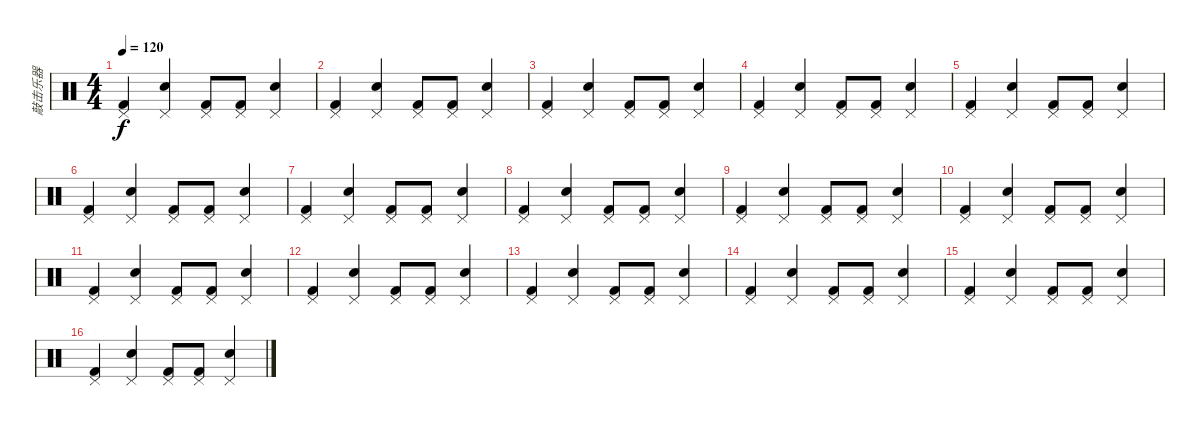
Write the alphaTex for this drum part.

\track ("敲击乐器" "敲击乐器") {instrument percussion}
\staff {score}
\articulation defaults
\ts (4 4)
\tempo 120
\clef neutral
\ks c
("Kick (hit) 2" "Pedal Hi-Hat (hit)").4{dy f} ("Snare (hit) 2" "Pedal Hi-Hat (hit)").4 ("Kick (hit) 2" "Pedal Hi-Hat (hit)").8 ("Kick (hit) 2" "Pedal Hi-Hat (hit)").8 ("Snare (hit) 2" "Pedal Hi-Hat (hit)").4 |
("Kick (hit) 2" "Pedal Hi-Hat (hit)").4 ("Snare (hit) 2" "Pedal Hi-Hat (hit)").4 ("Kick (hit) 2" "Pedal Hi-Hat (hit)").8 ("Kick (hit) 2" "Pedal Hi-Hat (hit)").8 ("Snare (hit) 2" "Pedal Hi-Hat (hit)").4 |
("Kick (hit) 2" "Pedal Hi-Hat (hit)").4 ("Snare (hit) 2" "Pedal Hi-Hat (hit)").4 ("Kick (hit) 2" "Pedal Hi-Hat (hit)").8 ("Kick (hit) 2" "Pedal Hi-Hat (hit)").8 ("Snare (hit) 2" "Pedal Hi-Hat (hit)").4 |
("Kick (hit) 2" "Pedal Hi-Hat (hit)").4 ("Snare (hit) 2" "Pedal Hi-Hat (hit)").4 ("Kick (hit) 2" "Pedal Hi-Hat (hit)").8 ("Kick (hit) 2" "Pedal Hi-Hat (hit)").8 ("Snare (hit) 2" "Pedal Hi-Hat (hit)").4 |
("Kick (hit) 2" "Pedal Hi-Hat (hit)").4 ("Snare (hit) 2" "Pedal Hi-Hat (hit)").4 ("Kick (hit) 2" "Pedal Hi-Hat (hit)").8 ("Kick (hit) 2" "Pedal Hi-Hat (hit)").8 ("Snare (hit) 2" "Pedal Hi-Hat (hit)").4 |
("Kick (hit) 2" "Pedal Hi-Hat (hit)").4 ("Snare (hit) 2" "Pedal Hi-Hat (hit)").4 ("Kick (hit) 2" "Pedal Hi-Hat (hit)").8 ("Kick (hit) 2" "Pedal Hi-Hat (hit)").8 ("Snare (hit) 2" "Pedal Hi-Hat (hit)").4 |
("Kick (hit) 2" "Pedal Hi-Hat (hit)").4 ("Snare (hit) 2" "Pedal Hi-Hat (hit)").4 ("Kick (hit) 2" "Pedal Hi-Hat (hit)").8 ("Kick (hit) 2" "Pedal Hi-Hat (hit)").8 ("Snare (hit) 2" "Pedal Hi-Hat (hit)").4 |
("Kick (hit) 2" "Pedal Hi-Hat (hit)").4 ("Snare (hit) 2" "Pedal Hi-Hat (hit)").4 ("Kick (hit) 2" "Pedal Hi-Hat (hit)").8 ("Kick (hit) 2" "Pedal Hi-Hat (hit)").8 ("Snare (hit) 2" "Pedal Hi-Hat (hit)").4 |
("Kick (hit) 2" "Pedal Hi-Hat (hit)").4 ("Snare (hit) 2" "Pedal Hi-Hat (hit)").4 ("Kick (hit) 2" "Pedal Hi-Hat (hit)").8 ("Kick (hit) 2" "Pedal Hi-Hat (hit)").8 ("Snare (hit) 2" "Pedal Hi-Hat (hit)").4 |
("Kick (hit) 2" "Pedal Hi-Hat (hit)").4 ("Snare (hit) 2" "Pedal Hi-Hat (hit)").4 ("Kick (hit) 2" "Pedal Hi-Hat (hit)").8 ("Kick (hit) 2" "Pedal Hi-Hat (hit)").8 ("Snare (hit) 2" "Pedal Hi-Hat (hit)").4 |
("Kick (hit) 2" "Pedal Hi-Hat (hit)").4 ("Snare (hit) 2" "Pedal Hi-Hat (hit)").4 ("Kick (hit) 2" "Pedal Hi-Hat (hit)").8 ("Kick (hit) 2" "Pedal Hi-Hat (hit)").8 ("Snare (hit) 2" "Pedal Hi-Hat (hit)").4 |
("Kick (hit) 2" "Pedal Hi-Hat (hit)").4 ("Snare (hit) 2" "Pedal Hi-Hat (hit)").4 ("Kick (hit) 2" "Pedal Hi-Hat (hit)").8 ("Kick (hit) 2" "Pedal Hi-Hat (hit)").8 ("Snare (hit) 2" "Pedal Hi-Hat (hit)").4 |
("Kick (hit) 2" "Pedal Hi-Hat (hit)").4 ("Snare (hit) 2" "Pedal Hi-Hat (hit)").4 ("Kick (hit) 2" "Pedal Hi-Hat (hit)").8 ("Kick (hit) 2" "Pedal Hi-Hat (hit)").8 ("Snare (hit) 2" "Pedal Hi-Hat (hit)").4 |
("Kick (hit) 2" "Pedal Hi-Hat (hit)").4 ("Snare (hit) 2" "Pedal Hi-Hat (hit)").4 ("Kick (hit) 2" "Pedal Hi-Hat (hit)").8 ("Kick (hit) 2" "Pedal Hi-Hat (hit)").8 ("Snare (hit) 2" "Pedal Hi-Hat (hit)").4 |
("Kick (hit) 2" "Pedal Hi-Hat (hit)").4 ("Snare (hit) 2" "Pedal Hi-Hat (hit)").4 ("Kick (hit) 2" "Pedal Hi-Hat (hit)").8 ("Kick (hit) 2" "Pedal Hi-Hat (hit)").8 ("Snare (hit) 2" "Pedal Hi-Hat (hit)").4 |
("Kick (hit) 2" "Pedal Hi-Hat (hit)").4 ("Snare (hit) 2" "Pedal Hi-Hat (hit)").4 ("Kick (hit) 2" "Pedal Hi-Hat (hit)").8 ("Kick (hit) 2" "Pedal Hi-Hat (hit)").8 ("Snare (hit) 2" "Pedal Hi-Hat (hit)").4
